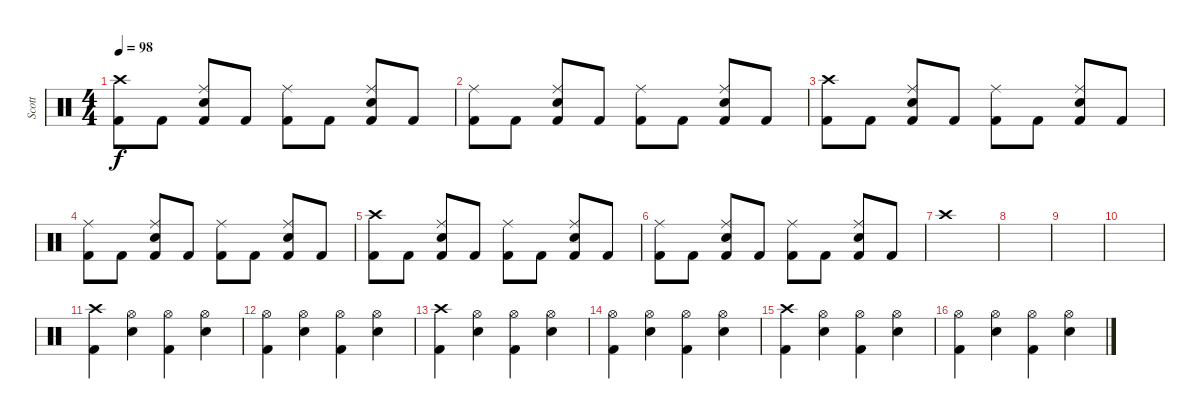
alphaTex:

\track ("Scott" "Scott") {instrument percussion}
\staff {score}
\articulation defaults
\ts (4 4)
\tempo 98
\clef neutral
\ks c
("Crash high (hit)" "Kick (hit) 2").8{dy f} "Kick (hit) 2".8 ("Ride (middle)" "Electric Snare (hit)" "Kick (hit) 2").8 "Kick (hit) 2".8 ("Ride (middle)" "Kick (hit) 2").8 "Kick (hit) 2".8 ("Ride (middle)" "Electric Snare (hit)" "Kick (hit) 2").8 "Kick (hit) 2".8 |
("Ride (middle)" "Kick (hit) 2").8 "Kick (hit) 2".8 ("Ride (middle)" "Electric Snare (hit)" "Kick (hit) 2").8 "Kick (hit) 2".8 ("Ride (middle)" "Kick (hit) 2").8 "Kick (hit) 2".8 ("Ride (middle)" "Electric Snare (hit)" "Kick (hit) 2").8 "Kick (hit) 2".8 |
("Crash high (hit)" "Kick (hit) 2").8 "Kick (hit) 2".8 ("Ride (middle)" "Electric Snare (hit)" "Kick (hit) 2").8 "Kick (hit) 2".8 ("Ride (middle)" "Kick (hit) 2").8 "Kick (hit) 2".8 ("Ride (middle)" "Electric Snare (hit)" "Kick (hit) 2").8 "Kick (hit) 2".8 |
("Ride (middle)" "Kick (hit) 2").8 "Kick (hit) 2".8 ("Ride (middle)" "Electric Snare (hit)" "Kick (hit) 2").8 "Kick (hit) 2".8 ("Ride (middle)" "Kick (hit) 2").8 "Kick (hit) 2".8 ("Ride (middle)" "Electric Snare (hit)" "Kick (hit) 2").8 "Kick (hit) 2".8 |
("Crash high (hit)" "Kick (hit) 2").8 "Kick (hit) 2".8 ("Ride (middle)" "Electric Snare (hit)" "Kick (hit) 2").8 "Kick (hit) 2".8 ("Ride (middle)" "Kick (hit) 2").8 "Kick (hit) 2".8 ("Ride (middle)" "Electric Snare (hit)" "Kick (hit) 2").8 "Kick (hit) 2".8 |
("Ride (middle)" "Kick (hit) 2").8 "Kick (hit) 2".8 ("Ride (middle)" "Electric Snare (hit)" "Kick (hit) 2").8 "Kick (hit) 2".8 ("Ride (middle)" "Kick (hit) 2").8 "Kick (hit) 2".8 ("Ride (middle)" "Electric Snare (hit)" "Kick (hit) 2").8 "Kick (hit) 2".8 |
"Crash high (hit)".1 |
|
|
|
("Crash high (hit)" "Kick (hit) 2").4 ("Hi-Hat (open)" "Snare (hit) 2").4 ("Hi-Hat (open)" "Kick (hit) 2").4 ("Hi-Hat (open)" "Snare (hit) 2").4 |
("Hi-Hat (open)" "Kick (hit) 2").4 ("Hi-Hat (open)" "Snare (hit) 2").4 ("Hi-Hat (open)" "Kick (hit) 2").4 ("Hi-Hat (open)" "Snare (hit) 2").4 |
("Crash high (hit)" "Kick (hit) 2").4 ("Hi-Hat (open)" "Snare (hit) 2").4 ("Hi-Hat (open)" "Kick (hit) 2").4 ("Hi-Hat (open)" "Snare (hit) 2").4 |
("Hi-Hat (open)" "Kick (hit) 2").4 ("Hi-Hat (open)" "Snare (hit) 2").4 ("Hi-Hat (open)" "Kick (hit) 2").4 ("Hi-Hat (open)" "Snare (hit) 2").4 |
("Crash high (hit)" "Kick (hit) 2").4 ("Hi-Hat (open)" "Snare (hit) 2").4 ("Hi-Hat (open)" "Kick (hit) 2").4 ("Hi-Hat (open)" "Snare (hit) 2").4 |
("Hi-Hat (open)" "Kick (hit) 2").4 ("Hi-Hat (open)" "Snare (hit) 2").4 ("Hi-Hat (open)" "Kick (hit) 2").4 ("Hi-Hat (open)" "Snare (hit) 2").4
